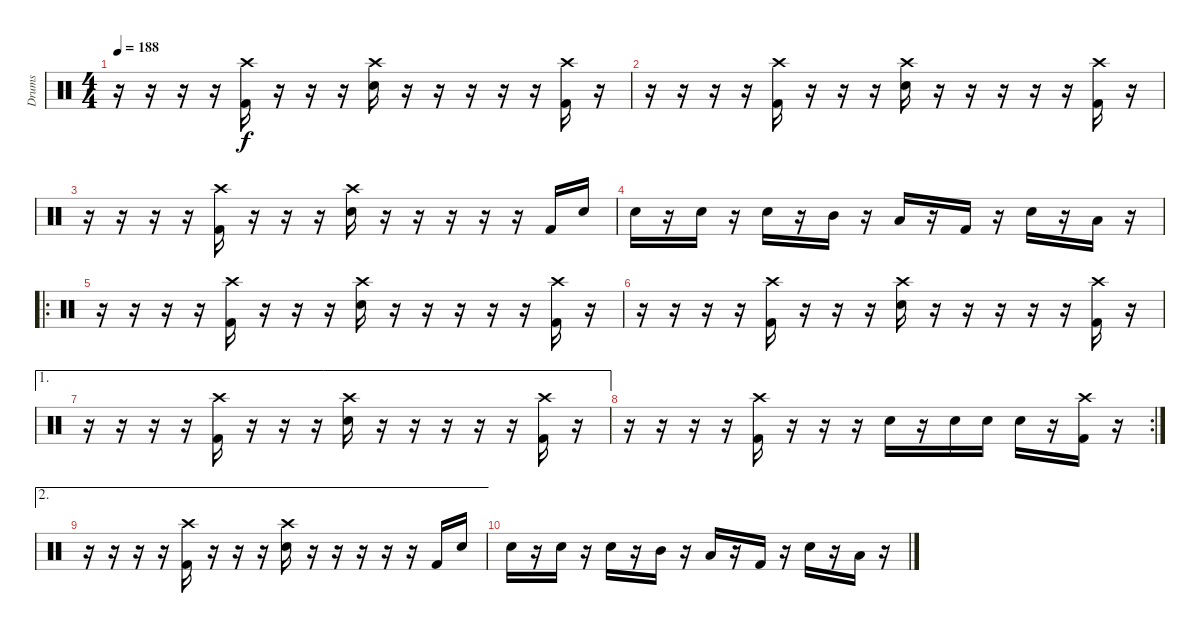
\track ("Drums" "Drums") {instrument percussion}
\staff {score}
\articulation defaults
\ts (4 4)
\tempo 188
\clef neutral
\ks c
r.16{dy f} r.16 r.16 r.16 ("Crash high (hit)" "Kick (hit) 2").16 r.16 r.16 r.16 ("Crash high (hit)" "Electric Snare (hit)").16 r.16 r.16 r.16 r.16 r.16 ("Crash high (hit)" "Kick (hit) 2").16 r.16 |
r.16 r.16 r.16 r.16 ("Crash high (hit)" "Kick (hit) 2").16 r.16 r.16 r.16 ("Crash high (hit)" "Electric Snare (hit)").16 r.16 r.16 r.16 r.16 r.16 ("Crash high (hit)" "Kick (hit) 2").16 r.16 |
r.16 r.16 r.16 r.16 ("Crash high (hit)" "Kick (hit) 2").16 r.16 r.16 r.16 ("Crash high (hit)" "Electric Snare (hit)").16 r.16 r.16 r.16 r.16 r.16 "Kick (hit) 2".16 "Electric Snare (hit)".16 |
"Electric Snare (hit)".16 r.16 "Electric Snare (hit)".16 r.16 "Electric Snare (hit)".16 r.16 "Mid Tom (hit)".16 r.16 "Low Tom (hit)".16 r.16 "Kick (hit) 2".16 r.16 "Electric Snare (hit)".16 r.16 "Low Floor Tom (hit)".16 r.16 |
\ro
r.16 r.16 r.16 r.16 ("Crash high (hit)" "Kick (hit) 2").16 r.16 r.16 r.16 ("Crash high (hit)" "Electric Snare (hit)").16 r.16 r.16 r.16 r.16 r.16 ("Crash high (hit)" "Kick (hit) 2").16 r.16 |
r.16 r.16 r.16 r.16 ("Crash high (hit)" "Kick (hit) 2").16 r.16 r.16 r.16 ("Crash high (hit)" "Electric Snare (hit)").16 r.16 r.16 r.16 r.16 r.16 ("Crash high (hit)" "Kick (hit) 2").16 r.16 |
\ae 1
r.16 r.16 r.16 r.16 ("Crash high (hit)" "Kick (hit) 2").16 r.16 r.16 r.16 ("Crash high (hit)" "Electric Snare (hit)").16 r.16 r.16 r.16 r.16 r.16 ("Crash high (hit)" "Kick (hit) 2").16 r.16 |
\rc 2
r.16 r.16 r.16 r.16 ("Crash high (hit)" "Kick (hit) 2").16 r.16 r.16 r.16 "Electric Snare (hit)".16 r.16 "Electric Snare (hit)".16 "Electric Snare (hit)".16 "Electric Snare (hit)".16 r.16 ("Crash high (hit)" "Kick (hit) 2").16 r.16 |
\ae 2
r.16 r.16 r.16 r.16 ("Crash high (hit)" "Kick (hit) 2").16 r.16 r.16 r.16 ("Crash high (hit)" "Electric Snare (hit)").16 r.16 r.16 r.16 r.16 r.16 "Kick (hit) 2".16 "Electric Snare (hit)".16 |
"Electric Snare (hit)".16 r.16 "Electric Snare (hit)".16 r.16 "Electric Snare (hit)".16 r.16 "Mid Tom (hit)".16 r.16 "Low Tom (hit)".16 r.16 "Kick (hit) 2".16 r.16 "Electric Snare (hit)".16 r.16 "Low Floor Tom (hit)".16 r.16
